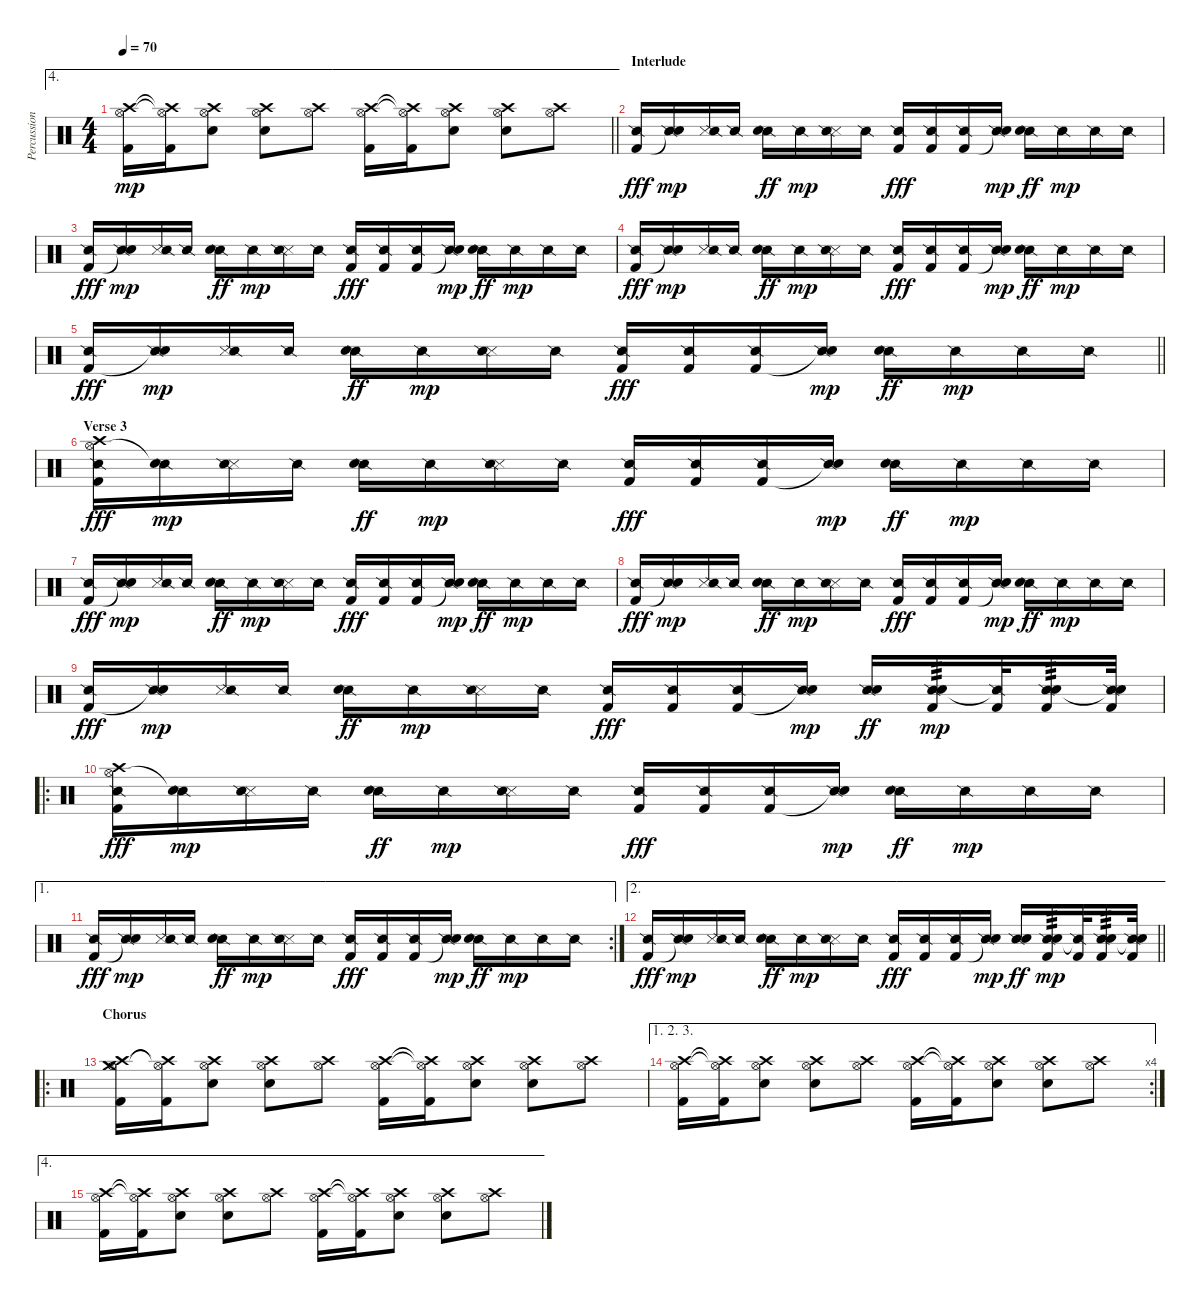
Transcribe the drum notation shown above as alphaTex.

\track ("Percussion" "Percussion") {instrument percussion}
\staff {score}
\articulation defaults
\ae 4
\ts (4 4)
\tempo 70
\clef neutral
\barLineRight lightlight
\ks c
("Crash high (hit)" "Hi-Hat (open)" "Kick (hit) 2").16{dy mp} ("Crash high (hit)"{t} "Hi-Hat (open)"{t} "Kick (hit) 2").16 ("Crash high (hit)" "Hi-Hat (open)" "Electric Snare (hit)").8 ("Crash high (hit)" "Hi-Hat (open)" "Electric Snare (hit)").8 ("Crash high (hit)" "Hi-Hat (open)").8 ("Crash high (hit)" "Hi-Hat (open)" "Kick (hit) 2").16 ("Crash high (hit)"{t} "Hi-Hat (open)"{t} "Kick (hit) 2").16 ("Crash high (hit)" "Hi-Hat (open)" "Electric Snare (hit)").8 ("Crash high (hit)" "Hi-Hat (open)" "Electric Snare (hit)").8 ("Crash high (hit)" "Hi-Hat (open)").8 |
\section ("" "Interlude")
("Snare (side stick) 2" "Kick (hit) 2").16{dy fff} ("Snare (side stick) 2" "Snare (hit)"{t}).16{dy mp} ("Snare (side stick) 3" "Snare (side stick) 2").16 "Snare (side stick) 2".16 ("Snare (side stick) 2" "Electric Snare (hit)").16{dy ff} "Snare (side stick) 2".16{dy mp} ("Snare (side stick) 3" "Snare (side stick) 2").16 "Snare (side stick) 2".16 ("Snare (side stick) 2" "Kick (hit) 2").16{dy fff} ("Snare (side stick) 2" "Kick (hit) 2").16 ("Snare (side stick) 2" "Kick (hit) 2").16 ("Snare (side stick) 2" "Snare (hit)"{t}).16{dy mp} ("Snare (side stick) 2" "Electric Snare (hit)").16{dy ff} "Snare (side stick) 2".16{dy mp} "Snare (side stick) 2".16 "Snare (side stick) 2".16 |
("Snare (side stick) 2" "Kick (hit) 2").16{dy fff} ("Snare (side stick) 2" "Snare (hit)"{t}).16{dy mp} ("Snare (side stick) 3" "Snare (side stick) 2").16 "Snare (side stick) 2".16 ("Snare (side stick) 2" "Electric Snare (hit)").16{dy ff} "Snare (side stick) 2".16{dy mp} ("Snare (side stick) 3" "Snare (side stick) 2").16 "Snare (side stick) 2".16 ("Snare (side stick) 2" "Kick (hit) 2").16{dy fff} ("Snare (side stick) 2" "Kick (hit) 2").16 ("Snare (side stick) 2" "Kick (hit) 2").16 ("Snare (side stick) 2" "Snare (hit)"{t}).16{dy mp} ("Snare (side stick) 2" "Electric Snare (hit)").16{dy ff} "Snare (side stick) 2".16{dy mp} "Snare (side stick) 2".16 "Snare (side stick) 2".16 |
("Snare (side stick) 2" "Kick (hit) 2").16{dy fff} ("Snare (side stick) 2" "Snare (hit)"{t}).16{dy mp} ("Snare (side stick) 3" "Snare (side stick) 2").16 "Snare (side stick) 2".16 ("Snare (side stick) 2" "Electric Snare (hit)").16{dy ff} "Snare (side stick) 2".16{dy mp} ("Snare (side stick) 3" "Snare (side stick) 2").16 "Snare (side stick) 2".16 ("Snare (side stick) 2" "Kick (hit) 2").16{dy fff} ("Snare (side stick) 2" "Kick (hit) 2").16 ("Snare (side stick) 2" "Kick (hit) 2").16 ("Snare (side stick) 2" "Snare (hit)"{t}).16{dy mp} ("Snare (side stick) 2" "Electric Snare (hit)").16{dy ff} "Snare (side stick) 2".16{dy mp} "Snare (side stick) 2".16 "Snare (side stick) 2".16 |
\barLineRight lightlight
("Snare (side stick) 2" "Kick (hit) 2").16{dy fff} ("Snare (side stick) 2" "Snare (hit)"{t}).16{dy mp} ("Snare (side stick) 3" "Snare (side stick) 2").16 "Snare (side stick) 2".16 ("Snare (side stick) 2" "Electric Snare (hit)").16{dy ff} "Snare (side stick) 2".16{dy mp} ("Snare (side stick) 3" "Snare (side stick) 2").16 "Snare (side stick) 2".16 ("Snare (side stick) 2" "Kick (hit) 2").16{dy fff} ("Snare (side stick) 2" "Kick (hit) 2").16 ("Snare (side stick) 2" "Kick (hit) 2").16 ("Snare (side stick) 2" "Snare (hit)"{t}).16{dy mp} ("Snare (side stick) 2" "Electric Snare (hit)").16{dy ff} "Snare (side stick) 2".16{dy mp} "Snare (side stick) 2".16 "Snare (side stick) 2".16 |
\section ("" "Verse 3")
("Crash high (hit)" "Hi-Hat (open)" "Snare (side stick) 2" "Kick (hit) 2").16{dy fff} ("Snare (side stick) 2" "Snare (hit)"{t}).16{dy mp} ("Snare (side stick) 3" "Snare (side stick) 2").16 "Snare (side stick) 2".16 ("Snare (side stick) 2" "Electric Snare (hit)").16{dy ff} "Snare (side stick) 2".16{dy mp} ("Snare (side stick) 3" "Snare (side stick) 2").16 "Snare (side stick) 2".16 ("Snare (side stick) 2" "Kick (hit) 2").16{dy fff} ("Snare (side stick) 2" "Kick (hit) 2").16 ("Snare (side stick) 2" "Kick (hit) 2").16 ("Snare (side stick) 2" "Snare (hit)"{t}).16{dy mp} ("Snare (side stick) 2" "Electric Snare (hit)").16{dy ff} "Snare (side stick) 2".16{dy mp} "Snare (side stick) 2".16 "Snare (side stick) 2".16 |
("Snare (side stick) 2" "Kick (hit) 2").16{dy fff} ("Snare (side stick) 2" "Snare (hit)"{t}).16{dy mp} ("Snare (side stick) 3" "Snare (side stick) 2").16 "Snare (side stick) 2".16 ("Snare (side stick) 2" "Electric Snare (hit)").16{dy ff} "Snare (side stick) 2".16{dy mp} ("Snare (side stick) 3" "Snare (side stick) 2").16 "Snare (side stick) 2".16 ("Snare (side stick) 2" "Kick (hit) 2").16{dy fff} ("Snare (side stick) 2" "Kick (hit) 2").16 ("Snare (side stick) 2" "Kick (hit) 2").16 ("Snare (side stick) 2" "Snare (hit)"{t}).16{dy mp} ("Snare (side stick) 2" "Electric Snare (hit)").16{dy ff} "Snare (side stick) 2".16{dy mp} "Snare (side stick) 2".16 "Snare (side stick) 2".16 |
("Snare (side stick) 2" "Kick (hit) 2").16{dy fff} ("Snare (side stick) 2" "Snare (hit)"{t}).16{dy mp} ("Snare (side stick) 3" "Snare (side stick) 2").16 "Snare (side stick) 2".16 ("Snare (side stick) 2" "Electric Snare (hit)").16{dy ff} "Snare (side stick) 2".16{dy mp} ("Snare (side stick) 3" "Snare (side stick) 2").16 "Snare (side stick) 2".16 ("Snare (side stick) 2" "Kick (hit) 2").16{dy fff} ("Snare (side stick) 2" "Kick (hit) 2").16 ("Snare (side stick) 2" "Kick (hit) 2").16 ("Snare (side stick) 2" "Snare (hit)"{t}).16{dy mp} ("Snare (side stick) 2" "Electric Snare (hit)").16{dy ff} "Snare (side stick) 2".16{dy mp} "Snare (side stick) 2".16 "Snare (side stick) 2".16 |
("Snare (side stick) 2" "Kick (hit) 2").16{dy fff} ("Snare (side stick) 2" "Snare (hit)"{t}).16{dy mp} ("Snare (side stick) 3" "Snare (side stick) 2").16 "Snare (side stick) 2".16 ("Snare (side stick) 2" "Electric Snare (hit)").16{dy ff} "Snare (side stick) 2".16{dy mp} ("Snare (side stick) 3" "Snare (side stick) 2").16 "Snare (side stick) 2".16 ("Snare (side stick) 2" "Kick (hit) 2").16{dy fff} ("Snare (side stick) 2" "Kick (hit) 2").16 ("Snare (side stick) 2" "Kick (hit) 2").16 ("Snare (side stick) 2" "Snare (hit)"{t}).16{dy mp} ("Snare (side stick) 2" "Electric Snare (hit)").16{dy ff} ("Snare (side stick) 2" "Electric Snare (hit)" "Kick (hit) 2").16{tp 3 dy mp} ("Snare (side stick) 2"{t} "Kick (hit) 2").32 ("Snare (side stick) 2" "Electric Snare (hit)" "Kick (hit) 2").16{tp 3} ("Snare (side stick) 2"{t} "Electric Snare (hit)" "Kick (hit) 2").32 |
\ro
("Crash high (hit)" "Hi-Hat (open)" "Snare (side stick) 2" "Kick (hit) 2").16{dy fff} ("Snare (side stick) 2" "Snare (hit)"{t}).16{dy mp} ("Snare (side stick) 3" "Snare (side stick) 2").16 "Snare (side stick) 2".16 ("Snare (side stick) 2" "Electric Snare (hit)").16{dy ff} "Snare (side stick) 2".16{dy mp} ("Snare (side stick) 3" "Snare (side stick) 2").16 "Snare (side stick) 2".16 ("Snare (side stick) 2" "Kick (hit) 2").16{dy fff} ("Snare (side stick) 2" "Kick (hit) 2").16 ("Snare (side stick) 2" "Kick (hit) 2").16 ("Snare (side stick) 2" "Snare (hit)"{t}).16{dy mp} ("Snare (side stick) 2" "Electric Snare (hit)").16{dy ff} "Snare (side stick) 2".16{dy mp} "Snare (side stick) 2".16 "Snare (side stick) 2".16 |
\ae 1
\rc 2
("Snare (side stick) 2" "Kick (hit) 2").16{dy fff} ("Snare (side stick) 2" "Snare (hit)"{t}).16{dy mp} ("Snare (side stick) 3" "Snare (side stick) 2").16 "Snare (side stick) 2".16 ("Snare (side stick) 2" "Electric Snare (hit)").16{dy ff} "Snare (side stick) 2".16{dy mp} ("Snare (side stick) 3" "Snare (side stick) 2").16 "Snare (side stick) 2".16 ("Snare (side stick) 2" "Kick (hit) 2").16{dy fff} ("Snare (side stick) 2" "Kick (hit) 2").16 ("Snare (side stick) 2" "Kick (hit) 2").16 ("Snare (side stick) 2" "Snare (hit)"{t}).16{dy mp} ("Snare (side stick) 2" "Electric Snare (hit)").16{dy ff} "Snare (side stick) 2".16{dy mp} "Snare (side stick) 2".16 "Snare (side stick) 2".16 |
\ae 2
\barLineRight lightlight
("Snare (side stick) 2" "Kick (hit) 2").16{dy fff} ("Snare (side stick) 2" "Snare (hit)"{t}).16{dy mp} ("Snare (side stick) 3" "Snare (side stick) 2").16 "Snare (side stick) 2".16 ("Snare (side stick) 2" "Electric Snare (hit)").16{dy ff} "Snare (side stick) 2".16{dy mp} ("Snare (side stick) 3" "Snare (side stick) 2").16 "Snare (side stick) 2".16 ("Snare (side stick) 2" "Kick (hit) 2").16{dy fff} ("Snare (side stick) 2" "Kick (hit) 2").16 ("Snare (side stick) 2" "Kick (hit) 2").16 ("Snare (side stick) 2" "Snare (hit)"{t}).16{dy mp} ("Snare (side stick) 2" "Electric Snare (hit)").16{dy ff} ("Snare (side stick) 2" "Electric Snare (hit)" "Kick (hit) 2").16{tp 3 dy mp} ("Snare (side stick) 2"{t} "Kick (hit) 2").32 ("Snare (side stick) 2" "Electric Snare (hit)" "Kick (hit) 2").16{tp 3} ("Snare (side stick) 2"{t} "Electric Snare (hit)" "Kick (hit) 2").32 |
\ro
\section ("" "Chorus")
("Crash medium (hit)" "Crash high (hit)" "Hi-Hat (open)" "Kick (hit) 2").16 ("Crash high (hit)"{t} "Hi-Hat (open)"{t} "Kick (hit) 2").16 ("Crash high (hit)" "Hi-Hat (open)" "Electric Snare (hit)").8 ("Crash high (hit)" "Hi-Hat (open)" "Electric Snare (hit)").8 ("Crash high (hit)" "Hi-Hat (open)").8 ("Crash high (hit)" "Hi-Hat (open)" "Kick (hit) 2").16 ("Crash high (hit)"{t} "Hi-Hat (open)"{t} "Kick (hit) 2").16 ("Crash high (hit)" "Hi-Hat (open)" "Electric Snare (hit)").8 ("Crash high (hit)" "Hi-Hat (open)" "Electric Snare (hit)").8 ("Crash high (hit)" "Hi-Hat (open)").8 |
\ae (1 2 3)
\rc 4
("Crash high (hit)" "Hi-Hat (open)" "Kick (hit) 2").16 ("Crash high (hit)"{t} "Hi-Hat (open)"{t} "Kick (hit) 2").16 ("Crash high (hit)" "Hi-Hat (open)" "Electric Snare (hit)").8 ("Crash high (hit)" "Hi-Hat (open)" "Electric Snare (hit)").8 ("Crash high (hit)" "Hi-Hat (open)").8 ("Crash high (hit)" "Hi-Hat (open)" "Kick (hit) 2").16 ("Crash high (hit)"{t} "Hi-Hat (open)"{t} "Kick (hit) 2").16 ("Crash high (hit)" "Hi-Hat (open)" "Electric Snare (hit)").8 ("Crash high (hit)" "Hi-Hat (open)" "Electric Snare (hit)").8 ("Crash high (hit)" "Hi-Hat (open)").8 |
\ae 4
("Crash high (hit)" "Hi-Hat (open)" "Kick (hit) 2").16 ("Crash high (hit)"{t} "Hi-Hat (open)"{t} "Kick (hit) 2").16 ("Crash high (hit)" "Hi-Hat (open)" "Electric Snare (hit)").8 ("Crash high (hit)" "Hi-Hat (open)" "Electric Snare (hit)").8 ("Crash high (hit)" "Hi-Hat (open)").8 ("Crash high (hit)" "Hi-Hat (open)" "Kick (hit) 2").16 ("Crash high (hit)"{t} "Hi-Hat (open)"{t} "Kick (hit) 2").16 ("Crash high (hit)" "Hi-Hat (open)" "Electric Snare (hit)").8 ("Crash high (hit)" "Hi-Hat (open)" "Electric Snare (hit)").8 ("Crash high (hit)" "Hi-Hat (open)").8
